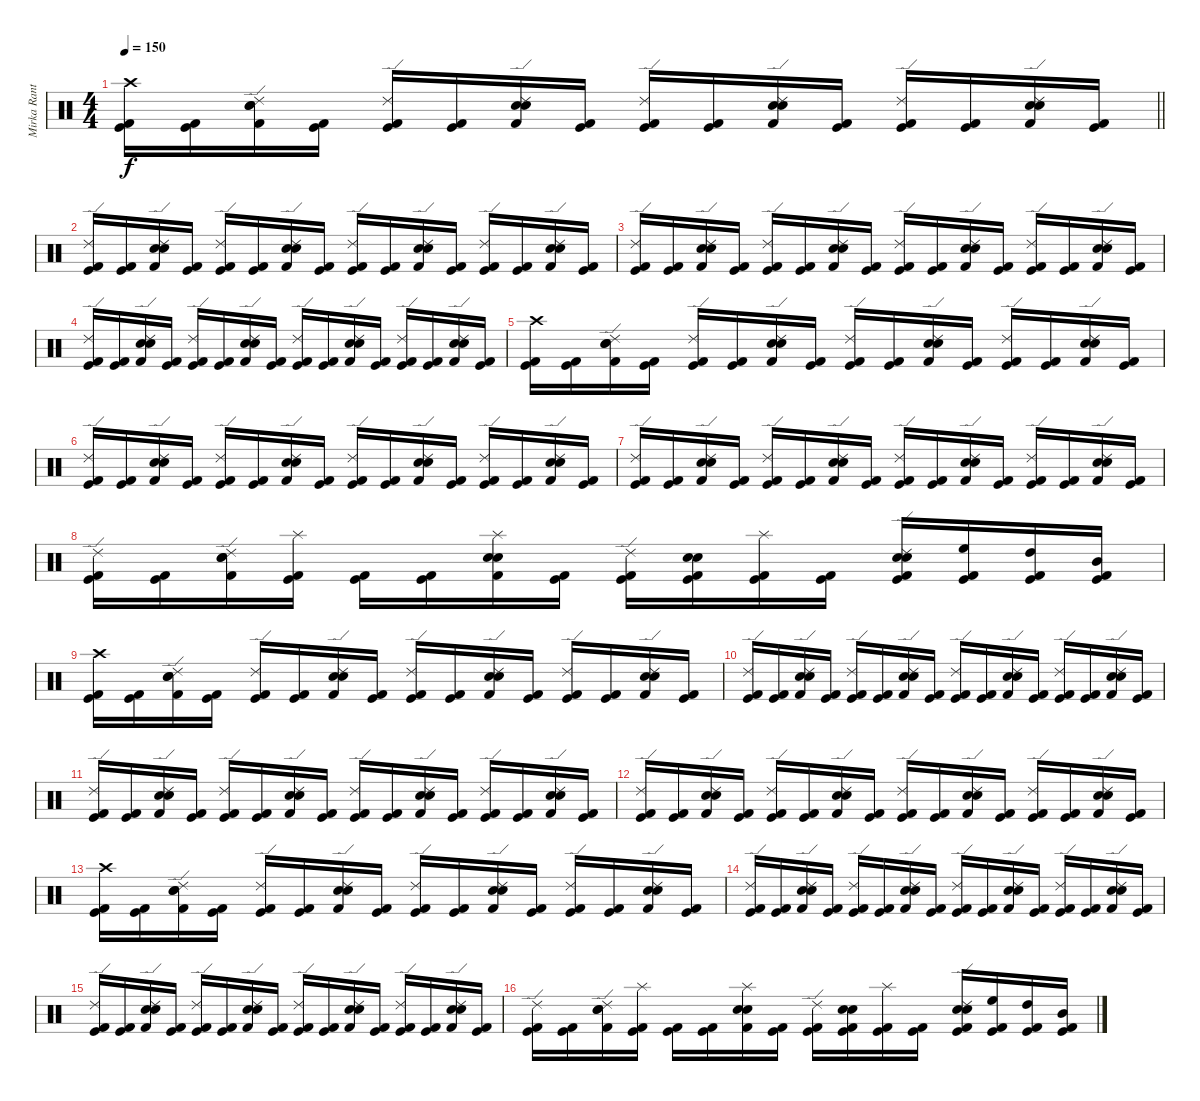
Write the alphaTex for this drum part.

\track ("Mirka Rantanen" "Mirka Rant") {instrument percussion}
\staff {score}
\articulation defaults
\ts (4 4)
\tempo 150
\clef neutral
\barLineRight lightlight
\ks c
("Crash high (hit)" "Kick (hit)" "Kick (hit) 2").16{dy f} ("Kick (hit)" "Kick (hit) 2").16 ("Ride (edge) 2" "Kick (hit) 2" "Electric Snare (hit)" "Snare (hit) 2").16 ("Kick (hit)" "Kick (hit) 2").16 ("Ride (edge) 2" "Kick (hit)" "Kick (hit) 2").16 ("Kick (hit)" "Kick (hit) 2").16 ("Ride (edge) 2" "Kick (hit) 2" "Electric Snare (hit)" "Snare (hit) 2").16 ("Kick (hit)" "Kick (hit) 2").16 ("Ride (edge) 2" "Kick (hit)" "Kick (hit) 2").16 ("Kick (hit)" "Kick (hit) 2").16 ("Ride (edge) 2" "Kick (hit) 2" "Electric Snare (hit)" "Snare (hit) 2").16 ("Kick (hit)" "Kick (hit) 2").16 ("Ride (edge) 2" "Kick (hit)" "Kick (hit) 2").16 ("Kick (hit)" "Kick (hit) 2").16 ("Ride (edge) 2" "Kick (hit) 2" "Electric Snare (hit)" "Snare (hit) 2").16 ("Kick (hit)" "Kick (hit) 2").16 |
("Ride (edge) 2" "Kick (hit)" "Kick (hit) 2").16 ("Kick (hit)" "Kick (hit) 2").16 ("Ride (edge) 2" "Kick (hit) 2" "Electric Snare (hit)" "Snare (hit) 2").16 ("Kick (hit)" "Kick (hit) 2").16 ("Ride (edge) 2" "Kick (hit)" "Kick (hit) 2").16 ("Kick (hit)" "Kick (hit) 2").16 ("Ride (edge) 2" "Kick (hit) 2" "Electric Snare (hit)" "Snare (hit) 2").16 ("Kick (hit)" "Kick (hit) 2").16 ("Ride (edge) 2" "Kick (hit)" "Kick (hit) 2").16 ("Kick (hit)" "Kick (hit) 2").16 ("Ride (edge) 2" "Kick (hit) 2" "Electric Snare (hit)" "Snare (hit) 2").16 ("Kick (hit)" "Kick (hit) 2").16 ("Ride (edge) 2" "Kick (hit)" "Kick (hit) 2").16 ("Kick (hit)" "Kick (hit) 2").16 ("Ride (edge) 2" "Kick (hit) 2" "Electric Snare (hit)" "Snare (hit) 2").16 ("Kick (hit)" "Kick (hit) 2").16 |
("Ride (edge) 2" "Kick (hit)" "Kick (hit) 2").16 ("Kick (hit)" "Kick (hit) 2").16 ("Ride (edge) 2" "Kick (hit) 2" "Electric Snare (hit)" "Snare (hit) 2").16 ("Kick (hit)" "Kick (hit) 2").16 ("Ride (edge) 2" "Kick (hit)" "Kick (hit) 2").16 ("Kick (hit)" "Kick (hit) 2").16 ("Ride (edge) 2" "Kick (hit) 2" "Electric Snare (hit)" "Snare (hit) 2").16 ("Kick (hit)" "Kick (hit) 2").16 ("Ride (edge) 2" "Kick (hit)" "Kick (hit) 2").16 ("Kick (hit)" "Kick (hit) 2").16 ("Ride (edge) 2" "Kick (hit) 2" "Electric Snare (hit)" "Snare (hit) 2").16 ("Kick (hit)" "Kick (hit) 2").16 ("Ride (edge) 2" "Kick (hit)" "Kick (hit) 2").16 ("Kick (hit)" "Kick (hit) 2").16 ("Ride (edge) 2" "Kick (hit) 2" "Electric Snare (hit)" "Snare (hit) 2").16 ("Kick (hit)" "Kick (hit) 2").16 |
("Ride (edge) 2" "Kick (hit)" "Kick (hit) 2").16 ("Kick (hit)" "Kick (hit) 2").16 ("Ride (edge) 2" "Kick (hit) 2" "Electric Snare (hit)" "Snare (hit) 2").16 ("Kick (hit)" "Kick (hit) 2").16 ("Ride (edge) 2" "Kick (hit)" "Kick (hit) 2").16 ("Kick (hit)" "Kick (hit) 2").16 ("Ride (edge) 2" "Kick (hit) 2" "Electric Snare (hit)" "Snare (hit) 2").16 ("Kick (hit)" "Kick (hit) 2").16 ("Ride (edge) 2" "Kick (hit)" "Kick (hit) 2").16 ("Kick (hit)" "Kick (hit) 2").16 ("Ride (edge) 2" "Kick (hit) 2" "Electric Snare (hit)" "Snare (hit) 2").16 ("Kick (hit)" "Kick (hit) 2").16 ("Ride (edge) 2" "Kick (hit)" "Kick (hit) 2").16 ("Kick (hit)" "Kick (hit) 2").16 ("Ride (edge) 2" "Kick (hit) 2" "Electric Snare (hit)" "Snare (hit) 2").16 ("Kick (hit)" "Kick (hit) 2").16 |
("Crash high (hit)" "Kick (hit)" "Kick (hit) 2").16 ("Kick (hit)" "Kick (hit) 2").16 ("Ride (edge) 2" "Kick (hit) 2" "Electric Snare (hit)" "Snare (hit) 2").16 ("Kick (hit)" "Kick (hit) 2").16 ("Ride (edge) 2" "Kick (hit)" "Kick (hit) 2").16 ("Kick (hit)" "Kick (hit) 2").16 ("Ride (edge) 2" "Kick (hit) 2" "Electric Snare (hit)" "Snare (hit) 2").16 ("Kick (hit)" "Kick (hit) 2").16 ("Ride (edge) 2" "Kick (hit)" "Kick (hit) 2").16 ("Kick (hit)" "Kick (hit) 2").16 ("Ride (edge) 2" "Kick (hit) 2" "Electric Snare (hit)" "Snare (hit) 2").16 ("Kick (hit)" "Kick (hit) 2").16 ("Ride (edge) 2" "Kick (hit)" "Kick (hit) 2").16 ("Kick (hit)" "Kick (hit) 2").16 ("Ride (edge) 2" "Kick (hit) 2" "Electric Snare (hit)" "Snare (hit) 2").16 ("Kick (hit)" "Kick (hit) 2").16 |
("Ride (edge) 2" "Kick (hit)" "Kick (hit) 2").16 ("Kick (hit)" "Kick (hit) 2").16 ("Ride (edge) 2" "Kick (hit) 2" "Electric Snare (hit)" "Snare (hit) 2").16 ("Kick (hit)" "Kick (hit) 2").16 ("Ride (edge) 2" "Kick (hit)" "Kick (hit) 2").16 ("Kick (hit)" "Kick (hit) 2").16 ("Ride (edge) 2" "Kick (hit) 2" "Electric Snare (hit)" "Snare (hit) 2").16 ("Kick (hit)" "Kick (hit) 2").16 ("Ride (edge) 2" "Kick (hit)" "Kick (hit) 2").16 ("Kick (hit)" "Kick (hit) 2").16 ("Ride (edge) 2" "Kick (hit) 2" "Electric Snare (hit)" "Snare (hit) 2").16 ("Kick (hit)" "Kick (hit) 2").16 ("Ride (edge) 2" "Kick (hit)" "Kick (hit) 2").16 ("Kick (hit)" "Kick (hit) 2").16 ("Ride (edge) 2" "Kick (hit) 2" "Electric Snare (hit)" "Snare (hit) 2").16 ("Kick (hit)" "Kick (hit) 2").16 |
("Ride (edge) 2" "Kick (hit)" "Kick (hit) 2").16 ("Kick (hit)" "Kick (hit) 2").16 ("Ride (edge) 2" "Kick (hit) 2" "Electric Snare (hit)" "Snare (hit) 2").16 ("Kick (hit)" "Kick (hit) 2").16 ("Ride (edge) 2" "Kick (hit)" "Kick (hit) 2").16 ("Kick (hit)" "Kick (hit) 2").16 ("Ride (edge) 2" "Kick (hit) 2" "Electric Snare (hit)" "Snare (hit) 2").16 ("Kick (hit)" "Kick (hit) 2").16 ("Ride (edge) 2" "Kick (hit)" "Kick (hit) 2").16 ("Kick (hit)" "Kick (hit) 2").16 ("Ride (edge) 2" "Kick (hit) 2" "Electric Snare (hit)" "Snare (hit) 2").16 ("Kick (hit)" "Kick (hit) 2").16 ("Ride (edge) 2" "Kick (hit)" "Kick (hit) 2").16 ("Kick (hit)" "Kick (hit) 2").16 ("Ride (edge) 2" "Kick (hit) 2" "Electric Snare (hit)" "Snare (hit) 2").16 ("Kick (hit)" "Kick (hit) 2").16 |
("Ride (edge) 2" "Kick (hit)" "Kick (hit) 2").16 ("Kick (hit)" "Kick (hit) 2").16 ("Ride (edge) 2" "Kick (hit) 2" "Electric Snare (hit)" "Snare (hit) 2").16 ("Splash (hit)" "Kick (hit)" "Kick (hit) 2").16 ("Kick (hit)" "Kick (hit) 2").16 ("Kick (hit)" "Kick (hit) 2").16 ("Splash (hit)" "Kick (hit) 2" "Electric Snare (hit)" "Snare (hit) 2").16 ("Kick (hit)" "Kick (hit) 2").16 ("Ride (edge) 2" "Kick (hit)" "Kick (hit) 2").16 ("Kick (hit)" "Kick (hit) 2" "Electric Snare (hit)" "Snare (hit) 2").16 ("Splash (hit)" "Kick (hit)" "Kick (hit) 2").16 ("Kick (hit)" "Kick (hit) 2").16 ("Ride (edge) 2" "Kick (hit)" "Kick (hit) 2" "Electric Snare (hit)" "Snare (hit) 2").16 ("High Floor Tom (hit)" "Kick (hit)" "Kick (hit) 2").16 ("High Tom (hit)" "Kick (hit)" "Kick (hit) 2").16 ("Mid Tom (hit)" "Kick (hit)" "Kick (hit) 2").16 |
("Crash high (hit)" "Kick (hit)" "Kick (hit) 2").16 ("Kick (hit)" "Kick (hit) 2").16 ("Ride (edge) 2" "Kick (hit) 2" "Electric Snare (hit)" "Snare (hit) 2").16 ("Kick (hit)" "Kick (hit) 2").16 ("Ride (edge) 2" "Kick (hit)" "Kick (hit) 2").16 ("Kick (hit)" "Kick (hit) 2").16 ("Ride (edge) 2" "Kick (hit) 2" "Electric Snare (hit)" "Snare (hit) 2").16 ("Kick (hit)" "Kick (hit) 2").16 ("Ride (edge) 2" "Kick (hit)" "Kick (hit) 2").16 ("Kick (hit)" "Kick (hit) 2").16 ("Ride (edge) 2" "Kick (hit) 2" "Electric Snare (hit)" "Snare (hit) 2").16 ("Kick (hit)" "Kick (hit) 2").16 ("Ride (edge) 2" "Kick (hit)" "Kick (hit) 2").16 ("Kick (hit)" "Kick (hit) 2").16 ("Ride (edge) 2" "Kick (hit) 2" "Electric Snare (hit)" "Snare (hit) 2").16 ("Kick (hit)" "Kick (hit) 2").16 |
("Ride (edge) 2" "Kick (hit)" "Kick (hit) 2").16 ("Kick (hit)" "Kick (hit) 2").16 ("Ride (edge) 2" "Kick (hit) 2" "Electric Snare (hit)" "Snare (hit) 2").16 ("Kick (hit)" "Kick (hit) 2").16 ("Ride (edge) 2" "Kick (hit)" "Kick (hit) 2").16 ("Kick (hit)" "Kick (hit) 2").16 ("Ride (edge) 2" "Kick (hit) 2" "Electric Snare (hit)" "Snare (hit) 2").16 ("Kick (hit)" "Kick (hit) 2").16 ("Ride (edge) 2" "Kick (hit)" "Kick (hit) 2").16 ("Kick (hit)" "Kick (hit) 2").16 ("Ride (edge) 2" "Kick (hit) 2" "Electric Snare (hit)" "Snare (hit) 2").16 ("Kick (hit)" "Kick (hit) 2").16 ("Ride (edge) 2" "Kick (hit)" "Kick (hit) 2").16 ("Kick (hit)" "Kick (hit) 2").16 ("Ride (edge) 2" "Kick (hit) 2" "Electric Snare (hit)" "Snare (hit) 2").16 ("Kick (hit)" "Kick (hit) 2").16 |
("Ride (edge) 2" "Kick (hit)" "Kick (hit) 2").16 ("Kick (hit)" "Kick (hit) 2").16 ("Ride (edge) 2" "Kick (hit) 2" "Electric Snare (hit)" "Snare (hit) 2").16 ("Kick (hit)" "Kick (hit) 2").16 ("Ride (edge) 2" "Kick (hit)" "Kick (hit) 2").16 ("Kick (hit)" "Kick (hit) 2").16 ("Ride (edge) 2" "Kick (hit) 2" "Electric Snare (hit)" "Snare (hit) 2").16 ("Kick (hit)" "Kick (hit) 2").16 ("Ride (edge) 2" "Kick (hit)" "Kick (hit) 2").16 ("Kick (hit)" "Kick (hit) 2").16 ("Ride (edge) 2" "Kick (hit) 2" "Electric Snare (hit)" "Snare (hit) 2").16 ("Kick (hit)" "Kick (hit) 2").16 ("Ride (edge) 2" "Kick (hit)" "Kick (hit) 2").16 ("Kick (hit)" "Kick (hit) 2").16 ("Ride (edge) 2" "Kick (hit) 2" "Electric Snare (hit)" "Snare (hit) 2").16 ("Kick (hit)" "Kick (hit) 2").16 |
("Ride (edge) 2" "Kick (hit)" "Kick (hit) 2").16 ("Kick (hit)" "Kick (hit) 2").16 ("Ride (edge) 2" "Kick (hit) 2" "Electric Snare (hit)" "Snare (hit) 2").16 ("Kick (hit)" "Kick (hit) 2").16 ("Ride (edge) 2" "Kick (hit)" "Kick (hit) 2").16 ("Kick (hit)" "Kick (hit) 2").16 ("Ride (edge) 2" "Kick (hit) 2" "Electric Snare (hit)" "Snare (hit) 2").16 ("Kick (hit)" "Kick (hit) 2").16 ("Ride (edge) 2" "Kick (hit)" "Kick (hit) 2").16 ("Kick (hit)" "Kick (hit) 2").16 ("Ride (edge) 2" "Kick (hit) 2" "Electric Snare (hit)" "Snare (hit) 2").16 ("Kick (hit)" "Kick (hit) 2").16 ("Ride (edge) 2" "Kick (hit)" "Kick (hit) 2").16 ("Kick (hit)" "Kick (hit) 2").16 ("Ride (edge) 2" "Kick (hit) 2" "Electric Snare (hit)" "Snare (hit) 2").16 ("Kick (hit)" "Kick (hit) 2").16 |
("Crash high (hit)" "Kick (hit)" "Kick (hit) 2").16 ("Kick (hit)" "Kick (hit) 2").16 ("Ride (edge) 2" "Kick (hit) 2" "Electric Snare (hit)" "Snare (hit) 2").16 ("Kick (hit)" "Kick (hit) 2").16 ("Ride (edge) 2" "Kick (hit)" "Kick (hit) 2").16 ("Kick (hit)" "Kick (hit) 2").16 ("Ride (edge) 2" "Kick (hit) 2" "Electric Snare (hit)" "Snare (hit) 2").16 ("Kick (hit)" "Kick (hit) 2").16 ("Ride (edge) 2" "Kick (hit)" "Kick (hit) 2").16 ("Kick (hit)" "Kick (hit) 2").16 ("Ride (edge) 2" "Kick (hit) 2" "Electric Snare (hit)" "Snare (hit) 2").16 ("Kick (hit)" "Kick (hit) 2").16 ("Ride (edge) 2" "Kick (hit)" "Kick (hit) 2").16 ("Kick (hit)" "Kick (hit) 2").16 ("Ride (edge) 2" "Kick (hit) 2" "Electric Snare (hit)" "Snare (hit) 2").16 ("Kick (hit)" "Kick (hit) 2").16 |
("Ride (edge) 2" "Kick (hit)" "Kick (hit) 2").16 ("Kick (hit)" "Kick (hit) 2").16 ("Ride (edge) 2" "Kick (hit) 2" "Electric Snare (hit)" "Snare (hit) 2").16 ("Kick (hit)" "Kick (hit) 2").16 ("Ride (edge) 2" "Kick (hit)" "Kick (hit) 2").16 ("Kick (hit)" "Kick (hit) 2").16 ("Ride (edge) 2" "Kick (hit) 2" "Electric Snare (hit)" "Snare (hit) 2").16 ("Kick (hit)" "Kick (hit) 2").16 ("Ride (edge) 2" "Kick (hit)" "Kick (hit) 2").16 ("Kick (hit)" "Kick (hit) 2").16 ("Ride (edge) 2" "Kick (hit) 2" "Electric Snare (hit)" "Snare (hit) 2").16 ("Kick (hit)" "Kick (hit) 2").16 ("Ride (edge) 2" "Kick (hit)" "Kick (hit) 2").16 ("Kick (hit)" "Kick (hit) 2").16 ("Ride (edge) 2" "Kick (hit) 2" "Electric Snare (hit)" "Snare (hit) 2").16 ("Kick (hit)" "Kick (hit) 2").16 |
("Ride (edge) 2" "Kick (hit)" "Kick (hit) 2").16 ("Kick (hit)" "Kick (hit) 2").16 ("Ride (edge) 2" "Kick (hit) 2" "Electric Snare (hit)" "Snare (hit) 2").16 ("Kick (hit)" "Kick (hit) 2").16 ("Ride (edge) 2" "Kick (hit)" "Kick (hit) 2").16 ("Kick (hit)" "Kick (hit) 2").16 ("Ride (edge) 2" "Kick (hit) 2" "Electric Snare (hit)" "Snare (hit) 2").16 ("Kick (hit)" "Kick (hit) 2").16 ("Ride (edge) 2" "Kick (hit)" "Kick (hit) 2").16 ("Kick (hit)" "Kick (hit) 2").16 ("Ride (edge) 2" "Kick (hit) 2" "Electric Snare (hit)" "Snare (hit) 2").16 ("Kick (hit)" "Kick (hit) 2").16 ("Ride (edge) 2" "Kick (hit)" "Kick (hit) 2").16 ("Kick (hit)" "Kick (hit) 2").16 ("Ride (edge) 2" "Kick (hit) 2" "Electric Snare (hit)" "Snare (hit) 2").16 ("Kick (hit)" "Kick (hit) 2").16 |
("Ride (edge) 2" "Kick (hit)" "Kick (hit) 2").16 ("Kick (hit)" "Kick (hit) 2").16 ("Ride (edge) 2" "Kick (hit) 2" "Electric Snare (hit)" "Snare (hit) 2").16 ("Splash (hit)" "Kick (hit)" "Kick (hit) 2").16 ("Kick (hit)" "Kick (hit) 2").16 ("Kick (hit)" "Kick (hit) 2").16 ("Splash (hit)" "Kick (hit) 2" "Electric Snare (hit)" "Snare (hit) 2").16 ("Kick (hit)" "Kick (hit) 2").16 ("Ride (edge) 2" "Kick (hit)" "Kick (hit) 2").16 ("Kick (hit)" "Kick (hit) 2" "Electric Snare (hit)" "Snare (hit) 2").16 ("Splash (hit)" "Kick (hit)" "Kick (hit) 2").16 ("Kick (hit)" "Kick (hit) 2").16 ("Ride (edge) 2" "Kick (hit)" "Kick (hit) 2" "Electric Snare (hit)" "Snare (hit) 2").16 ("High Floor Tom (hit)" "Kick (hit)" "Kick (hit) 2").16 ("High Tom (hit)" "Kick (hit)" "Kick (hit) 2").16 ("Mid Tom (hit)" "Kick (hit)" "Kick (hit) 2").16
